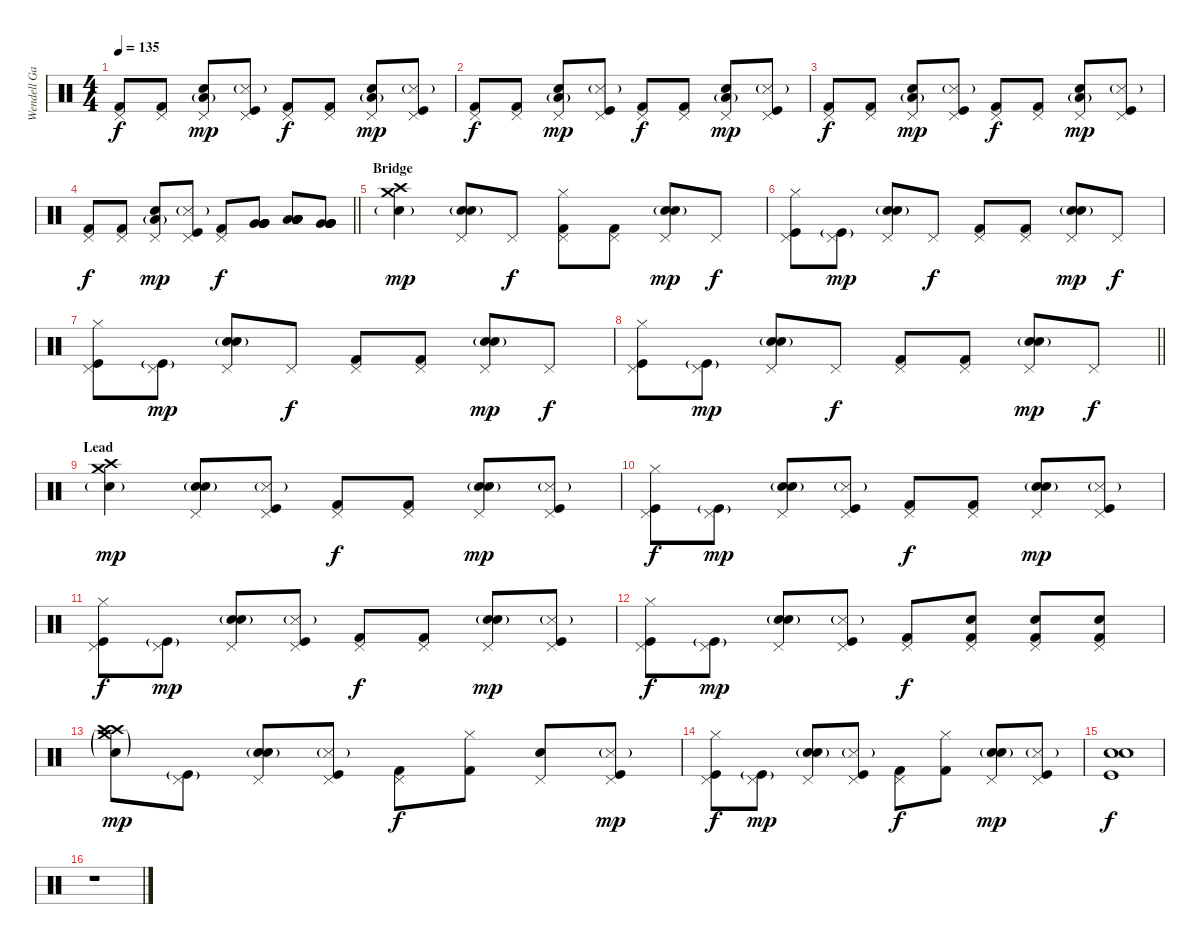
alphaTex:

\track ("Wendell Garcia" "Wendell Ga") {instrument percussion}
\staff {score}
\articulation defaults
\ts (4 4)
\tempo 135
\clef neutral
\ks c
("Pedal Hi-Hat (hit)" "Kick (hit) 2").8{dy f} ("Pedal Hi-Hat (hit)" "Kick (hit) 2").8 ("Pedal Hi-Hat (hit)" "Electric Snare (hit)" "Low Tom (hit)"{g}).8{dy mp} ("Pedal Hi-Hat (hit)" "Kick (hit)" "Snare (side stick) 3"{g}).8 ("Pedal Hi-Hat (hit)" "Kick (hit) 2").8{dy f} ("Pedal Hi-Hat (hit)" "Kick (hit) 2").8 ("Pedal Hi-Hat (hit)" "Electric Snare (hit)" "Low Tom (hit)"{g}).8{dy mp} ("Pedal Hi-Hat (hit)" "Kick (hit)" "Snare (side stick) 3"{g}).8 |
("Pedal Hi-Hat (hit)" "Kick (hit) 2").8{dy f} ("Pedal Hi-Hat (hit)" "Kick (hit) 2").8 ("Pedal Hi-Hat (hit)" "Electric Snare (hit)" "Low Tom (hit)"{g}).8{dy mp} ("Pedal Hi-Hat (hit)" "Kick (hit)" "Snare (side stick) 3"{g}).8 ("Pedal Hi-Hat (hit)" "Kick (hit) 2").8{dy f} ("Pedal Hi-Hat (hit)" "Kick (hit) 2").8 ("Pedal Hi-Hat (hit)" "Electric Snare (hit)" "Low Tom (hit)"{g}).8{dy mp} ("Pedal Hi-Hat (hit)" "Kick (hit)" "Snare (side stick) 3"{g}).8 |
("Pedal Hi-Hat (hit)" "Kick (hit) 2").8{dy f} ("Pedal Hi-Hat (hit)" "Kick (hit) 2").8 ("Pedal Hi-Hat (hit)" "Electric Snare (hit)" "Low Tom (hit)"{g}).8{dy mp} ("Pedal Hi-Hat (hit)" "Kick (hit)" "Snare (side stick) 3"{g}).8 ("Pedal Hi-Hat (hit)" "Kick (hit) 2").8{dy f} ("Pedal Hi-Hat (hit)" "Kick (hit) 2").8 ("Pedal Hi-Hat (hit)" "Electric Snare (hit)" "Low Tom (hit)"{g}).8{dy mp} ("Pedal Hi-Hat (hit)" "Kick (hit)" "Snare (side stick) 3"{g}).8 |
\barLineRight lightlight
("Pedal Hi-Hat (hit)" "Kick (hit) 2").8{dy f} ("Pedal Hi-Hat (hit)" "Kick (hit) 2").8 ("Pedal Hi-Hat (hit)" "Electric Snare (hit)" "Low Tom (hit)"{g}).8{dy mp} ("Pedal Hi-Hat (hit)" "Kick (hit)" "Snare (side stick) 3"{g}).8 ("Pedal Hi-Hat (hit)" "Kick (hit) 2").8{dy f} ("Very Low Tom (hit)" "Very Low Tom (hit)" "Very Low Tom (hit)" "Very Low Tom (hit)" "Very Low Tom (hit)").8 ("Low Tom (hit)" "Low Tom (hit)" "Low Tom (hit)" "Low Tom (hit)" "Low Tom (hit)").8 ("Very Low Tom (hit)" "Very Low Tom (hit)" "Very Low Tom (hit)" "Very Low Tom (hit)" "Very Low Tom (hit)").8 |
\section ("" "Bridge")
("Crash medium (hit)" "Crash high (hit)" "Electric Snare (hit)"{g}).4{dy mp} ("Pedal Hi-Hat (hit)" "Electric Snare (hit)" "Snare (hit) 2"{g}).8 "Pedal Hi-Hat (hit)".8{dy f} ("Pedal Hi-Hat (hit)" "Hi-Hat (closed)" "Kick (hit) 2").8 ("Pedal Hi-Hat (hit)" "Kick (hit) 2").8 ("Pedal Hi-Hat (hit)" "Electric Snare (hit)" "Snare (hit) 2"{g}).8{dy mp} "Pedal Hi-Hat (hit)".8{dy f} |
("Pedal Hi-Hat (hit)" "Hi-Hat (closed)" "Kick (hit)").8 ("Pedal Hi-Hat (hit)" "Kick (hit)"{g}).8{dy mp} ("Pedal Hi-Hat (hit)" "Electric Snare (hit)" "Snare (hit) 2"{g}).8 "Pedal Hi-Hat (hit)".8{dy f} ("Pedal Hi-Hat (hit)" "Kick (hit) 2").8 ("Pedal Hi-Hat (hit)" "Kick (hit) 2").8 ("Pedal Hi-Hat (hit)" "Electric Snare (hit)" "Snare (hit) 2"{g}).8{dy mp} "Pedal Hi-Hat (hit)".8{dy f} |
("Pedal Hi-Hat (hit)" "Hi-Hat (closed)" "Kick (hit)").8 ("Pedal Hi-Hat (hit)" "Kick (hit)"{g}).8{dy mp} ("Pedal Hi-Hat (hit)" "Electric Snare (hit)" "Snare (hit) 2"{g}).8 "Pedal Hi-Hat (hit)".8{dy f} ("Pedal Hi-Hat (hit)" "Kick (hit) 2").8 ("Pedal Hi-Hat (hit)" "Kick (hit) 2").8 ("Pedal Hi-Hat (hit)" "Electric Snare (hit)" "Snare (hit) 2"{g}).8{dy mp} "Pedal Hi-Hat (hit)".8{dy f} |
\barLineRight lightlight
("Pedal Hi-Hat (hit)" "Hi-Hat (closed)" "Kick (hit)").8 ("Pedal Hi-Hat (hit)" "Kick (hit)"{g}).8{dy mp} ("Pedal Hi-Hat (hit)" "Electric Snare (hit)" "Snare (hit) 2"{g}).8 "Pedal Hi-Hat (hit)".8{dy f} ("Pedal Hi-Hat (hit)" "Kick (hit) 2").8 ("Pedal Hi-Hat (hit)" "Kick (hit) 2").8 ("Pedal Hi-Hat (hit)" "Electric Snare (hit)" "Snare (hit) 2"{g}).8{dy mp} "Pedal Hi-Hat (hit)".8{dy f} |
\section ("" "Lead")
("Crash medium (hit)" "Crash high (hit)" "Electric Snare (hit)"{g}).4{dy mp} ("Pedal Hi-Hat (hit)" "Electric Snare (hit)" "Snare (hit) 2"{g}).8 ("Pedal Hi-Hat (hit)" "Kick (hit)" "Snare (side stick) 3"{g}).8 ("Pedal Hi-Hat (hit)" "Kick (hit) 2").8{dy f} ("Pedal Hi-Hat (hit)" "Kick (hit) 2").8 ("Pedal Hi-Hat (hit)" "Electric Snare (hit)" "Snare (hit) 2"{g}).8{dy mp} ("Pedal Hi-Hat (hit)" "Kick (hit)" "Snare (side stick) 3"{g}).8 |
("Pedal Hi-Hat (hit)" "Hi-Hat (closed)" "Kick (hit)").8{dy f} ("Pedal Hi-Hat (hit)" "Kick (hit)"{g}).8{dy mp} ("Pedal Hi-Hat (hit)" "Electric Snare (hit)" "Snare (hit) 2"{g}).8 ("Pedal Hi-Hat (hit)" "Kick (hit)" "Snare (side stick) 3"{g}).8 ("Pedal Hi-Hat (hit)" "Kick (hit) 2").8{dy f} ("Pedal Hi-Hat (hit)" "Kick (hit) 2").8 ("Pedal Hi-Hat (hit)" "Electric Snare (hit)" "Snare (hit) 2"{g}).8{dy mp} ("Pedal Hi-Hat (hit)" "Kick (hit)" "Snare (side stick) 3"{g}).8 |
("Pedal Hi-Hat (hit)" "Hi-Hat (closed)" "Kick (hit)").8{dy f} ("Pedal Hi-Hat (hit)" "Kick (hit)"{g}).8{dy mp} ("Pedal Hi-Hat (hit)" "Electric Snare (hit)" "Snare (hit) 2"{g}).8 ("Pedal Hi-Hat (hit)" "Kick (hit)" "Snare (side stick) 3"{g}).8 ("Pedal Hi-Hat (hit)" "Kick (hit) 2").8{dy f} ("Pedal Hi-Hat (hit)" "Kick (hit) 2").8 ("Pedal Hi-Hat (hit)" "Electric Snare (hit)" "Snare (hit) 2"{g}).8{dy mp} ("Pedal Hi-Hat (hit)" "Kick (hit)" "Snare (side stick) 3"{g}).8 |
("Pedal Hi-Hat (hit)" "Hi-Hat (closed)" "Kick (hit)").8{dy f} ("Pedal Hi-Hat (hit)" "Kick (hit)"{g}).8{dy mp} ("Pedal Hi-Hat (hit)" "Electric Snare (hit)" "Snare (hit) 2"{g}).8 ("Pedal Hi-Hat (hit)" "Kick (hit)" "Snare (side stick) 3"{g}).8 ("Pedal Hi-Hat (hit)" "Kick (hit) 2").8{dy f} ("Pedal Hi-Hat (hit)" "Electric Snare (hit)" "Kick (hit) 2").8 ("Pedal Hi-Hat (hit)" "Electric Snare (hit)" "Kick (hit) 2").8 ("Pedal Hi-Hat (hit)" "Electric Snare (hit)" "Kick (hit) 2").8 |
("Crash high (hit)" "Crash high (hit)" "Crash medium (hit)"{g} "Electric Snare (hit)"{g}).8{dy mp} ("Pedal Hi-Hat (hit)" "Kick (hit)"{g}).8 ("Pedal Hi-Hat (hit)" "Electric Snare (hit)" "Snare (hit) 2"{g}).8 ("Pedal Hi-Hat (hit)" "Kick (hit)" "Snare (side stick) 3"{g}).8 ("Pedal Hi-Hat (hit)" "Kick (hit) 2").8{dy f} ("Hi-Hat (closed)" "Kick (hit) 2").8 ("Pedal Hi-Hat (hit)" "Electric Snare (hit)").8 ("Pedal Hi-Hat (hit)" "Kick (hit)" "Snare (side stick) 3"{g}).8{dy mp} |
("Pedal Hi-Hat (hit)" "Hi-Hat (closed)" "Kick (hit)").8{dy f} ("Pedal Hi-Hat (hit)" "Kick (hit)"{g}).8{dy mp} ("Pedal Hi-Hat (hit)" "Electric Snare (hit)" "Snare (hit) 2"{g}).8 ("Pedal Hi-Hat (hit)" "Kick (hit)" "Snare (side stick) 3"{g}).8 ("Pedal Hi-Hat (hit)" "Kick (hit) 2").8{dy f} ("Hi-Hat (closed)" "Kick (hit) 2").8 ("Pedal Hi-Hat (hit)" "Electric Snare (hit)" "Snare (hit) 2"{g}).8{dy mp} ("Pedal Hi-Hat (hit)" "Kick (hit)" "Snare (side stick) 3"{g}).8 |
("Electric Snare (hit)" "Electric Snare (hit)" "Kick (hit)").1{dy f} |
r.1
